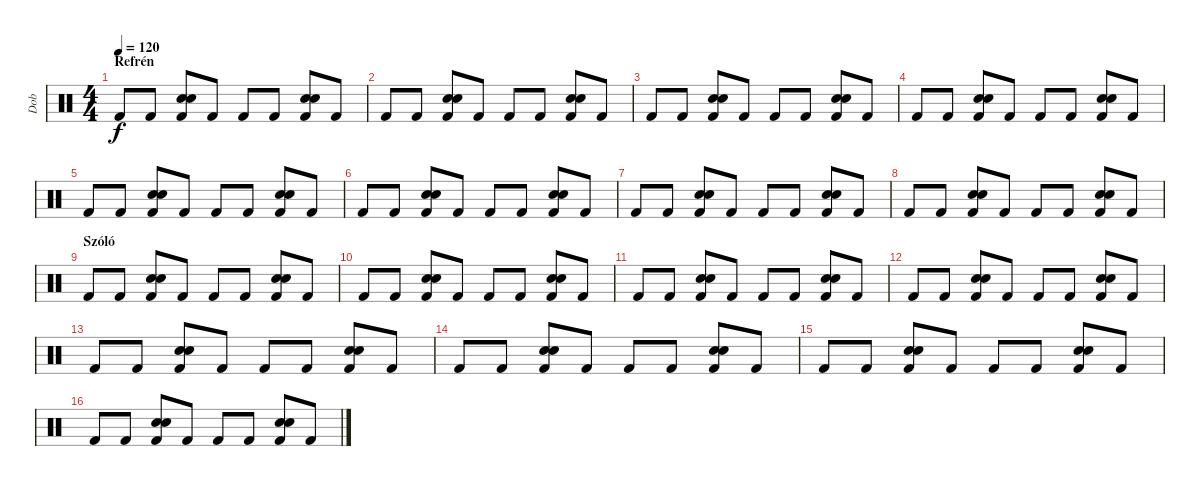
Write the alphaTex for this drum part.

\track ("Dob" "Dob") {instrument percussion}
\staff {score}
\articulation defaults
\ts (4 4)
\section ("" "Refrén")
\tempo 120
\clef neutral
\ks c "Kick (hit) 2".8{dy f} "Kick (hit) 2".8
("Snare (hit) 2" "Snare (hit) 2" "Kick (hit) 2").8 "Kick (hit) 2".8 "Kick (hit) 2".8 "Kick (hit) 2".8 ("Snare (hit) 2" "Snare (hit) 2" "Kick (hit) 2").8 "Kick (hit) 2".8 |
"Kick (hit) 2".8 "Kick (hit) 2".8 ("Snare (hit) 2" "Snare (hit) 2" "Kick (hit) 2").8 "Kick (hit) 2".8 "Kick (hit) 2".8 "Kick (hit) 2".8 ("Snare (hit) 2" "Snare (hit) 2" "Kick (hit) 2").8 "Kick (hit) 2".8 |
"Kick (hit) 2".8 "Kick (hit) 2".8 ("Snare (hit) 2" "Snare (hit) 2" "Kick (hit) 2").8 "Kick (hit) 2".8 "Kick (hit) 2".8 "Kick (hit) 2".8 ("Snare (hit) 2" "Snare (hit) 2" "Kick (hit) 2").8 "Kick (hit) 2".8 |
"Kick (hit) 2".8 "Kick (hit) 2".8 ("Snare (hit) 2" "Snare (hit) 2" "Kick (hit) 2").8 "Kick (hit) 2".8 "Kick (hit) 2".8 "Kick (hit) 2".8 ("Snare (hit) 2" "Snare (hit) 2" "Kick (hit) 2").8 "Kick (hit) 2".8 |
"Kick (hit) 2".8 "Kick (hit) 2".8 ("Snare (hit) 2" "Snare (hit) 2" "Kick (hit) 2").8 "Kick (hit) 2".8 "Kick (hit) 2".8 "Kick (hit) 2".8 ("Snare (hit) 2" "Snare (hit) 2" "Kick (hit) 2").8 "Kick (hit) 2".8 |
"Kick (hit) 2".8 "Kick (hit) 2".8 ("Snare (hit) 2" "Snare (hit) 2" "Kick (hit) 2").8 "Kick (hit) 2".8 "Kick (hit) 2".8 "Kick (hit) 2".8 ("Snare (hit) 2" "Snare (hit) 2" "Kick (hit) 2").8 "Kick (hit) 2".8 |
"Kick (hit) 2".8 "Kick (hit) 2".8 ("Snare (hit) 2" "Snare (hit) 2" "Kick (hit) 2").8 "Kick (hit) 2".8 "Kick (hit) 2".8 "Kick (hit) 2".8 ("Snare (hit) 2" "Snare (hit) 2" "Kick (hit) 2").8 "Kick (hit) 2".8 |
"Kick (hit) 2".8 "Kick (hit) 2".8 ("Snare (hit) 2" "Snare (hit) 2" "Kick (hit) 2").8 "Kick (hit) 2".8 "Kick (hit) 2".8 "Kick (hit) 2".8 ("Snare (hit) 2" "Snare (hit) 2" "Kick (hit) 2").8 "Kick (hit) 2".8 |
\section ("" "Szóló")
"Kick (hit) 2".8 "Kick (hit) 2".8 ("Snare (hit) 2" "Snare (hit) 2" "Kick (hit) 2").8 "Kick (hit) 2".8 "Kick (hit) 2".8 "Kick (hit) 2".8 ("Snare (hit) 2" "Snare (hit) 2" "Kick (hit) 2").8 "Kick (hit) 2".8 |
"Kick (hit) 2".8 "Kick (hit) 2".8 ("Snare (hit) 2" "Snare (hit) 2" "Kick (hit) 2").8 "Kick (hit) 2".8 "Kick (hit) 2".8 "Kick (hit) 2".8 ("Snare (hit) 2" "Snare (hit) 2" "Kick (hit) 2").8 "Kick (hit) 2".8 |
"Kick (hit) 2".8 "Kick (hit) 2".8 ("Snare (hit) 2" "Snare (hit) 2" "Kick (hit) 2").8 "Kick (hit) 2".8 "Kick (hit) 2".8 "Kick (hit) 2".8 ("Snare (hit) 2" "Snare (hit) 2" "Kick (hit) 2").8 "Kick (hit) 2".8 |
"Kick (hit) 2".8 "Kick (hit) 2".8 ("Snare (hit) 2" "Snare (hit) 2" "Kick (hit) 2").8 "Kick (hit) 2".8 "Kick (hit) 2".8 "Kick (hit) 2".8 ("Snare (hit) 2" "Snare (hit) 2" "Kick (hit) 2").8 "Kick (hit) 2".8 |
"Kick (hit) 2".8 "Kick (hit) 2".8 ("Snare (hit) 2" "Snare (hit) 2" "Kick (hit) 2").8 "Kick (hit) 2".8 "Kick (hit) 2".8 "Kick (hit) 2".8 ("Snare (hit) 2" "Snare (hit) 2" "Kick (hit) 2").8 "Kick (hit) 2".8 |
"Kick (hit) 2".8 "Kick (hit) 2".8 ("Snare (hit) 2" "Snare (hit) 2" "Kick (hit) 2").8 "Kick (hit) 2".8 "Kick (hit) 2".8 "Kick (hit) 2".8 ("Snare (hit) 2" "Snare (hit) 2" "Kick (hit) 2").8 "Kick (hit) 2".8 |
"Kick (hit) 2".8 "Kick (hit) 2".8 ("Snare (hit) 2" "Snare (hit) 2" "Kick (hit) 2").8 "Kick (hit) 2".8 "Kick (hit) 2".8 "Kick (hit) 2".8 ("Snare (hit) 2" "Snare (hit) 2" "Kick (hit) 2").8 "Kick (hit) 2".8 |
"Kick (hit) 2".8 "Kick (hit) 2".8 ("Snare (hit) 2" "Snare (hit) 2" "Kick (hit) 2").8 "Kick (hit) 2".8 "Kick (hit) 2".8 "Kick (hit) 2".8 ("Snare (hit) 2" "Snare (hit) 2" "Kick (hit) 2").8 "Kick (hit) 2".8
